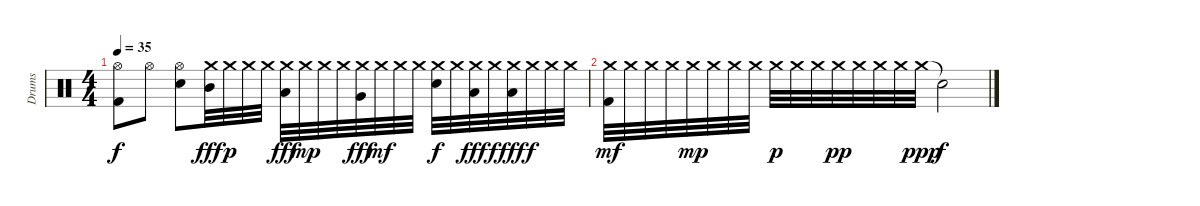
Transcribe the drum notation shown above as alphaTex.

\track ("Drums" "Drums") {instrument percussion}
\staff {score}
\articulation defaults
\ts (4 4)
\tempo 35
\clef neutral
\ks c
("Hi-Hat (open)" "Kick (hit) 2").8{dy f} "Hi-Hat (open)".8 ("Hi-Hat (open)" "Electric Snare (hit)").8 ("Crash medium (hit)" "Mid Tom (hit)").32{dy fff} "Crash medium (hit)".32{dy p} "Crash medium (hit)".32 "Crash medium (hit)".32 ("Crash medium (hit)" "Low Tom (hit)").32{dy fff} "Crash medium (hit)".32{dy mp} "Crash medium (hit)".32 "Crash medium (hit)".32 ("Crash medium (hit)" "Very Low Tom (hit)").32{dy fff} "Crash medium (hit)".32{dy mf} "Crash medium (hit)".32 "Crash medium (hit)".32 ("Crash medium (hit)" "Electric Snare (hit)").32{dy f} "Crash medium (hit)".32 ("Crash medium (hit)" "Low Floor Tom (hit)").32{dy fff} "Crash medium (hit)".32{dy f} ("Crash medium (hit)" "Low Floor Tom (hit)").32{dy fff} "Crash medium (hit)".32{dy f} "Crash medium (hit)".32 "Crash medium (hit)".32 |
("Crash medium (hit)" "Kick (hit) 2").32{dy mf} "Crash medium (hit)".32 "Crash medium (hit)".32 "Crash medium (hit)".32 "Crash medium (hit)".32{dy mp} "Crash medium (hit)".32 "Crash medium (hit)".32 "Crash medium (hit)".32 "Crash medium (hit)".32{dy p} "Crash medium (hit)".32 "Crash medium (hit)".32 "Crash medium (hit)".32{dy pp} "Crash medium (hit)".32 "Crash medium (hit)".32 "Crash medium (hit)".32 "Crash medium (hit)".32{dy ppp} "Snare (hit)"{t}.2{dy f}
